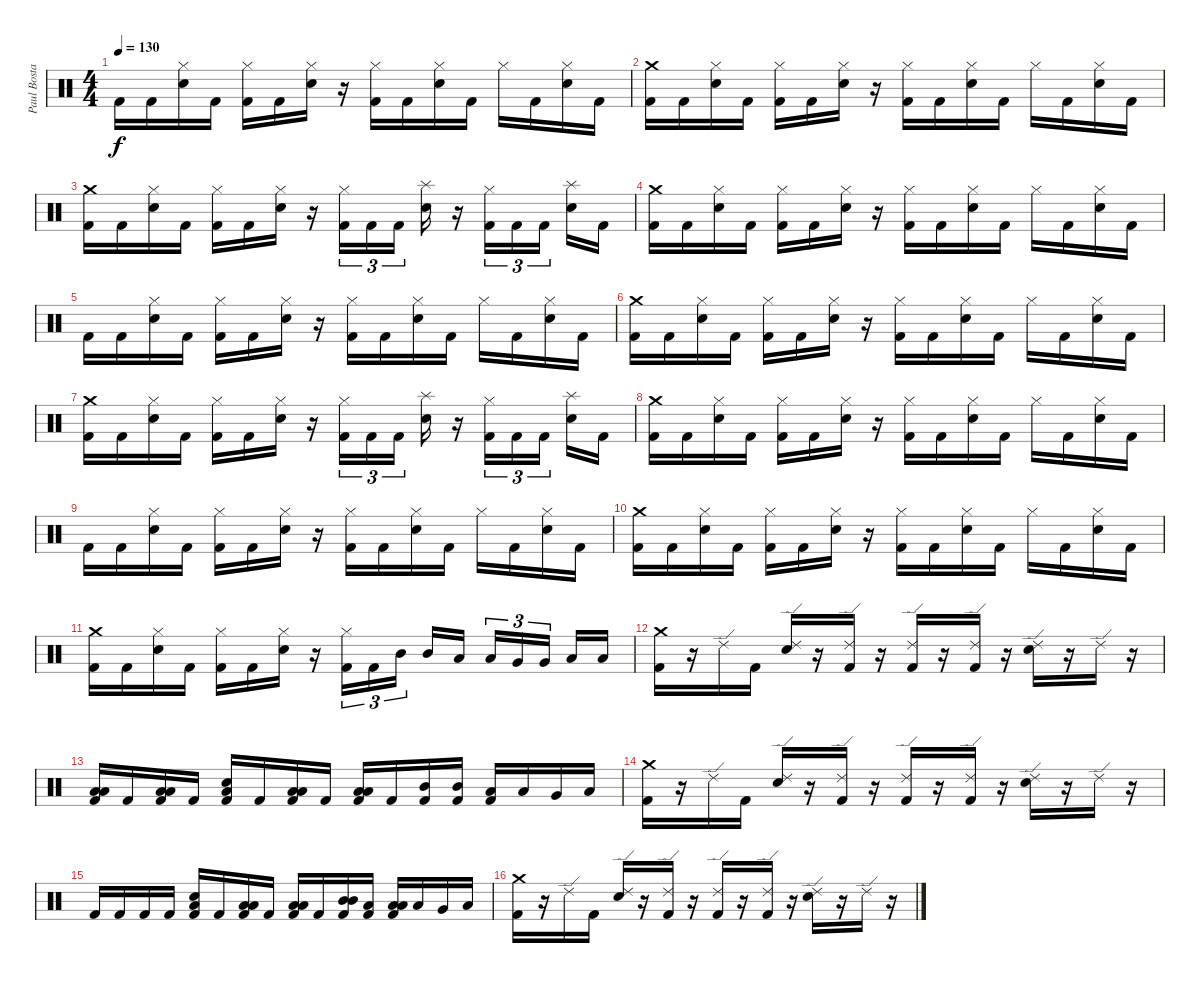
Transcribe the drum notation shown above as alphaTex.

\track ("Paul Bostaph" "Paul Bosta") {instrument percussion}
\staff {score}
\articulation defaults
\ts (4 4)
\tempo 130
\clef neutral
\ks c "Kick (hit) 2".16{dy f} "Kick (hit) 2".16
("Hi-Hat (closed)" "Snare (hit) 2").16 "Kick (hit) 2".16 ("Hi-Hat (closed)" "Kick (hit) 2").16 "Kick (hit) 2".16 ("Hi-Hat (closed)" "Snare (hit) 2").16 r.16 ("Hi-Hat (closed)" "Kick (hit) 2").16 "Kick (hit) 2".16 ("Hi-Hat (closed)" "Snare (hit) 2").16 "Kick (hit) 2".16 "Hi-Hat (closed)".16 "Kick (hit) 2".16 ("Hi-Hat (closed)" "Snare (hit) 2").16 "Kick (hit) 2".16 |
("Crash medium (hit)" "Kick (hit) 2").16 "Kick (hit) 2".16 ("Hi-Hat (closed)" "Snare (hit) 2").16 "Kick (hit) 2".16 ("Hi-Hat (closed)" "Kick (hit) 2").16 "Kick (hit) 2".16 ("Hi-Hat (closed)" "Snare (hit) 2").16 r.16 ("Hi-Hat (closed)" "Kick (hit) 2").16 "Kick (hit) 2".16 ("Hi-Hat (closed)" "Snare (hit) 2").16 "Kick (hit) 2".16 "Hi-Hat (closed)".16 "Kick (hit) 2".16 ("Hi-Hat (closed)" "Snare (hit) 2").16 "Kick (hit) 2".16 |
("Crash medium (hit)" "Kick (hit) 2").16 "Kick (hit) 2".16 ("Hi-Hat (closed)" "Snare (hit) 2").16 "Kick (hit) 2".16 ("Hi-Hat (closed)" "Kick (hit) 2").16 "Kick (hit) 2".16 ("Hi-Hat (closed)" "Snare (hit) 2").16 r.16 ("Hi-Hat (closed)" "Kick (hit) 2").16{tu (3 2)} "Kick (hit) 2".16{tu (3 2)} "Kick (hit) 2".16{tu (3 2) beam splitsecondary} ("Splash (hit)" "Snare (hit) 2").16 r.16 ("Hi-Hat (closed)" "Kick (hit) 2").16{tu (3 2)} "Kick (hit) 2".16{tu (3 2)} "Kick (hit) 2".16{tu (3 2) beam splitsecondary} ("Splash (hit)" "Snare (hit) 2").16 "Kick (hit) 2".16 |
("Crash medium (hit)" "Kick (hit) 2").16 "Kick (hit) 2".16 ("Hi-Hat (closed)" "Snare (hit) 2").16 "Kick (hit) 2".16 ("Hi-Hat (closed)" "Kick (hit) 2").16 "Kick (hit) 2".16 ("Hi-Hat (closed)" "Snare (hit) 2").16 r.16 ("Hi-Hat (closed)" "Kick (hit) 2").16 "Kick (hit) 2".16 ("Hi-Hat (closed)" "Snare (hit) 2").16 "Kick (hit) 2".16 "Hi-Hat (closed)".16 "Kick (hit) 2".16 ("Hi-Hat (closed)" "Snare (hit) 2").16 "Kick (hit) 2".16 |
"Kick (hit) 2".16 "Kick (hit) 2".16 ("Hi-Hat (closed)" "Snare (hit) 2").16 "Kick (hit) 2".16 ("Hi-Hat (closed)" "Kick (hit) 2").16 "Kick (hit) 2".16 ("Hi-Hat (closed)" "Snare (hit) 2").16 r.16 ("Hi-Hat (closed)" "Kick (hit) 2").16 "Kick (hit) 2".16 ("Hi-Hat (closed)" "Snare (hit) 2").16 "Kick (hit) 2".16 "Hi-Hat (closed)".16 "Kick (hit) 2".16 ("Hi-Hat (closed)" "Snare (hit) 2").16 "Kick (hit) 2".16 |
("Crash medium (hit)" "Kick (hit) 2").16 "Kick (hit) 2".16 ("Hi-Hat (closed)" "Snare (hit) 2").16 "Kick (hit) 2".16 ("Hi-Hat (closed)" "Kick (hit) 2").16 "Kick (hit) 2".16 ("Hi-Hat (closed)" "Snare (hit) 2").16 r.16 ("Hi-Hat (closed)" "Kick (hit) 2").16 "Kick (hit) 2".16 ("Hi-Hat (closed)" "Snare (hit) 2").16 "Kick (hit) 2".16 "Hi-Hat (closed)".16 "Kick (hit) 2".16 ("Hi-Hat (closed)" "Snare (hit) 2").16 "Kick (hit) 2".16 |
("Crash medium (hit)" "Kick (hit) 2").16 "Kick (hit) 2".16 ("Hi-Hat (closed)" "Snare (hit) 2").16 "Kick (hit) 2".16 ("Hi-Hat (closed)" "Kick (hit) 2").16 "Kick (hit) 2".16 ("Hi-Hat (closed)" "Snare (hit) 2").16 r.16 ("Hi-Hat (closed)" "Kick (hit) 2").16{tu (3 2)} "Kick (hit) 2".16{tu (3 2)} "Kick (hit) 2".16{tu (3 2) beam splitsecondary} ("Splash (hit)" "Snare (hit) 2").16 r.16 ("Hi-Hat (closed)" "Kick (hit) 2").16{tu (3 2)} "Kick (hit) 2".16{tu (3 2)} "Kick (hit) 2".16{tu (3 2) beam splitsecondary} ("Splash (hit)" "Snare (hit) 2").16 "Kick (hit) 2".16 |
("Crash medium (hit)" "Kick (hit) 2").16 "Kick (hit) 2".16 ("Hi-Hat (closed)" "Snare (hit) 2").16 "Kick (hit) 2".16 ("Hi-Hat (closed)" "Kick (hit) 2").16 "Kick (hit) 2".16 ("Hi-Hat (closed)" "Snare (hit) 2").16 r.16 ("Hi-Hat (closed)" "Kick (hit) 2").16 "Kick (hit) 2".16 ("Hi-Hat (closed)" "Snare (hit) 2").16 "Kick (hit) 2".16 "Hi-Hat (closed)".16 "Kick (hit) 2".16 ("Hi-Hat (closed)" "Snare (hit) 2").16 "Kick (hit) 2".16 |
"Kick (hit) 2".16 "Kick (hit) 2".16 ("Hi-Hat (closed)" "Snare (hit) 2").16 "Kick (hit) 2".16 ("Hi-Hat (closed)" "Kick (hit) 2").16 "Kick (hit) 2".16 ("Hi-Hat (closed)" "Snare (hit) 2").16 r.16 ("Hi-Hat (closed)" "Kick (hit) 2").16 "Kick (hit) 2".16 ("Hi-Hat (closed)" "Snare (hit) 2").16 "Kick (hit) 2".16 "Hi-Hat (closed)".16 "Kick (hit) 2".16 ("Hi-Hat (closed)" "Snare (hit) 2").16 "Kick (hit) 2".16 |
("Crash medium (hit)" "Kick (hit) 2").16 "Kick (hit) 2".16 ("Hi-Hat (closed)" "Snare (hit) 2").16 "Kick (hit) 2".16 ("Hi-Hat (closed)" "Kick (hit) 2").16 "Kick (hit) 2".16 ("Hi-Hat (closed)" "Snare (hit) 2").16 r.16 ("Hi-Hat (closed)" "Kick (hit) 2").16 "Kick (hit) 2".16 ("Hi-Hat (closed)" "Snare (hit) 2").16 "Kick (hit) 2".16 "Hi-Hat (closed)".16 "Kick (hit) 2".16 ("Hi-Hat (closed)" "Snare (hit) 2").16 "Kick (hit) 2".16 |
("Crash medium (hit)" "Kick (hit) 2").16 "Kick (hit) 2".16 ("Hi-Hat (closed)" "Snare (hit) 2").16 "Kick (hit) 2".16 ("Hi-Hat (closed)" "Kick (hit) 2").16 "Kick (hit) 2".16 ("Hi-Hat (closed)" "Snare (hit) 2").16 r.16 ("Hi-Hat (closed)" "Kick (hit) 2").16{tu (3 2)} "Kick (hit) 2".16{tu (3 2)} "Mid Tom (hit)".16{tu (3 2) beam splitsecondary} "Mid Tom (hit)".16 "Low Tom (hit)".16 "Low Tom (hit)".16{tu (3 2)} "Very Low Tom (hit)".16{tu (3 2)} "Very Low Tom (hit)".16{tu (3 2) beam splitsecondary} "Low Floor Tom (hit)".16 "Low Floor Tom (hit)".16 |
("Crash medium (hit)" "Kick (hit) 2").16 r.16 "Ride (edge) 2".16 "Kick (hit) 2".16 ("Ride (edge) 2" "Snare (hit) 2").16 r.16 ("Ride (edge) 2" "Kick (hit) 2").16 r.16 ("Ride (edge) 2" "Kick (hit) 2").16 r.16 ("Ride (edge) 2" "Kick (hit) 2").16 r.16 ("Ride (edge) 2" "Snare (hit) 2").16 r.16 "Ride (edge) 2".16 r.16 |
("Low Floor Tom (hit)" "Low Floor Tom (hit)" "Kick (hit) 2").16 "Kick (hit) 2".16 ("Low Floor Tom (hit)" "Low Floor Tom (hit)" "Kick (hit) 2").16 "Kick (hit) 2".16 ("Low Floor Tom (hit)" "Snare (hit) 2" "Kick (hit) 2").16 "Kick (hit) 2".16 ("Low Floor Tom (hit)" "Low Floor Tom (hit)" "Kick (hit) 2").16 "Kick (hit) 2".16 ("Low Floor Tom (hit)" "Low Floor Tom (hit)" "Kick (hit) 2").16 "Kick (hit) 2".16 ("Mid Tom (hit)" "Kick (hit) 2").16 ("Mid Tom (hit)" "Kick (hit) 2").16 ("Low Tom (hit)" "Kick (hit) 2").16 "Low Tom (hit)".16 "Very Low Tom (hit)".16 "Low Floor Tom (hit)".16 |
("Crash medium (hit)" "Kick (hit) 2").16 r.16 "Ride (edge) 2".16 "Kick (hit) 2".16 ("Ride (edge) 2" "Snare (hit) 2").16 r.16 ("Ride (edge) 2" "Kick (hit) 2").16 r.16 ("Ride (edge) 2" "Kick (hit) 2").16 r.16 ("Ride (edge) 2" "Kick (hit) 2").16 r.16 ("Ride (edge) 2" "Snare (hit) 2").16 r.16 "Ride (edge) 2".16 r.16 |
"Kick (hit) 2".16 "Kick (hit) 2".16 "Kick (hit) 2".16 "Kick (hit) 2".16 ("Low Floor Tom (hit)" "Snare (hit) 2" "Kick (hit) 2").16 "Kick (hit) 2".16 ("Low Floor Tom (hit)" "Low Floor Tom (hit)" "Kick (hit) 2").16 "Kick (hit) 2".16 ("Low Floor Tom (hit)" "Low Floor Tom (hit)" "Kick (hit) 2").16 "Kick (hit) 2".16 ("Mid Tom (hit)" "Mid Tom (hit)" "Kick (hit) 2").16 ("Low Floor Tom (hit)" "Kick (hit) 2").16 ("Low Tom (hit)" "Low Tom (hit)" "Kick (hit) 2").16 "Low Floor Tom (hit)".16 "Very Low Tom (hit)".16 "Low Floor Tom (hit)".16 |
("Crash medium (hit)" "Kick (hit) 2").16 r.16 "Ride (edge) 2".16 "Kick (hit) 2".16 ("Ride (edge) 2" "Snare (hit) 2").16 r.16 ("Ride (edge) 2" "Kick (hit) 2").16 r.16 ("Ride (edge) 2" "Kick (hit) 2").16 r.16 ("Ride (edge) 2" "Kick (hit) 2").16 r.16 ("Ride (edge) 2" "Snare (hit) 2").16 r.16 "Ride (edge) 2".16 r.16
